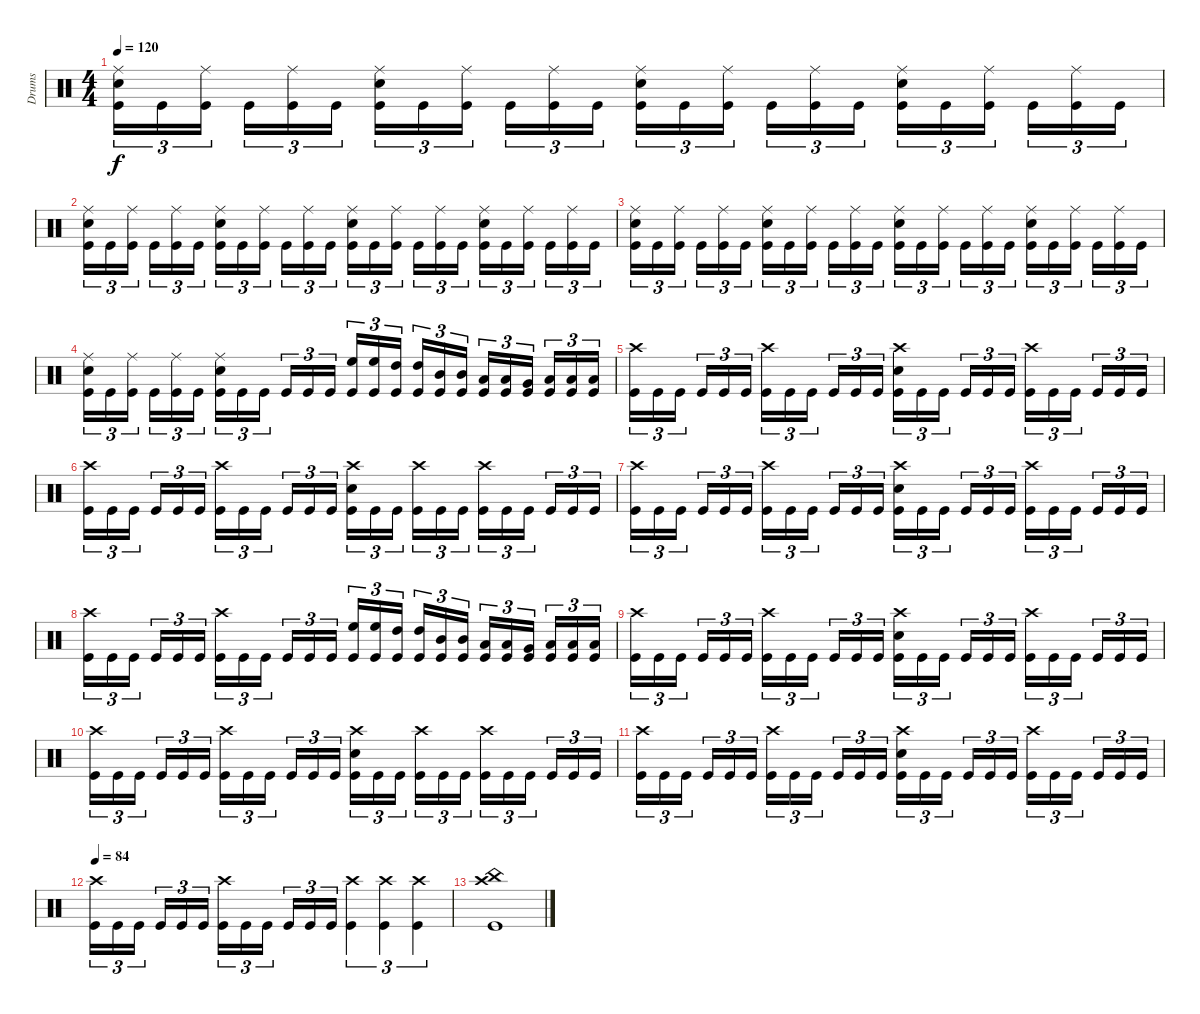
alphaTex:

\track ("Drums" "Drums") {instrument percussion}
\staff {score}
\articulation defaults
\ts (4 4)
\tempo 120
\clef neutral
\ks c
("Ride (middle)" "Snare (hit) 2" "Kick (hit)").16{tu (3 2) dy f} "Kick (hit)".16{tu (3 2)} ("Ride (middle)" "Kick (hit)").16{tu (3 2) beam splitsecondary} "Kick (hit)".16{tu (3 2)} ("Ride (middle)" "Kick (hit)").16{tu (3 2)} "Kick (hit)".16{tu (3 2)} ("Ride (middle)" "Snare (hit) 2" "Kick (hit)").16{tu (3 2)} "Kick (hit)".16{tu (3 2)} ("Ride (middle)" "Kick (hit)").16{tu (3 2) beam splitsecondary} "Kick (hit)".16{tu (3 2)} ("Ride (middle)" "Kick (hit)").16{tu (3 2)} "Kick (hit)".16{tu (3 2)} ("Ride (middle)" "Snare (hit) 2" "Kick (hit)").16{tu (3 2)} "Kick (hit)".16{tu (3 2)} ("Ride (middle)" "Kick (hit)").16{tu (3 2) beam splitsecondary} "Kick (hit)".16{tu (3 2)} ("Ride (middle)" "Kick (hit)").16{tu (3 2)} "Kick (hit)".16{tu (3 2)} ("Ride (middle)" "Snare (hit) 2" "Kick (hit)").16{tu (3 2)} "Kick (hit)".16{tu (3 2)} ("Ride (middle)" "Kick (hit)").16{tu (3 2) beam splitsecondary} "Kick (hit)".16{tu (3 2)} ("Ride (middle)" "Kick (hit)").16{tu (3 2)} "Kick (hit)".16{tu (3 2)} |
("Ride (middle)" "Snare (hit) 2" "Kick (hit)").16{tu (3 2)} "Kick (hit)".16{tu (3 2)} ("Ride (middle)" "Kick (hit)").16{tu (3 2) beam splitsecondary} "Kick (hit)".16{tu (3 2)} ("Ride (middle)" "Kick (hit)").16{tu (3 2)} "Kick (hit)".16{tu (3 2)} ("Ride (middle)" "Snare (hit) 2" "Kick (hit)").16{tu (3 2)} "Kick (hit)".16{tu (3 2)} ("Ride (middle)" "Kick (hit)").16{tu (3 2) beam splitsecondary} "Kick (hit)".16{tu (3 2)} ("Ride (middle)" "Kick (hit)").16{tu (3 2)} "Kick (hit)".16{tu (3 2)} ("Ride (middle)" "Snare (hit) 2" "Kick (hit)").16{tu (3 2)} "Kick (hit)".16{tu (3 2)} ("Ride (middle)" "Kick (hit)").16{tu (3 2) beam splitsecondary} "Kick (hit)".16{tu (3 2)} ("Ride (middle)" "Kick (hit)").16{tu (3 2)} "Kick (hit)".16{tu (3 2)} ("Ride (middle)" "Snare (hit) 2" "Kick (hit)").16{tu (3 2)} "Kick (hit)".16{tu (3 2)} ("Ride (middle)" "Kick (hit)").16{tu (3 2) beam splitsecondary} "Kick (hit)".16{tu (3 2)} ("Ride (middle)" "Kick (hit)").16{tu (3 2)} "Kick (hit)".16{tu (3 2)} |
("Ride (middle)" "Snare (hit) 2" "Kick (hit)").16{tu (3 2)} "Kick (hit)".16{tu (3 2)} ("Ride (middle)" "Kick (hit)").16{tu (3 2) beam splitsecondary} "Kick (hit)".16{tu (3 2)} ("Ride (middle)" "Kick (hit)").16{tu (3 2)} "Kick (hit)".16{tu (3 2)} ("Ride (middle)" "Snare (hit) 2" "Kick (hit)").16{tu (3 2)} "Kick (hit)".16{tu (3 2)} ("Ride (middle)" "Kick (hit)").16{tu (3 2) beam splitsecondary} "Kick (hit)".16{tu (3 2)} ("Ride (middle)" "Kick (hit)").16{tu (3 2)} "Kick (hit)".16{tu (3 2)} ("Ride (middle)" "Snare (hit) 2" "Kick (hit)").16{tu (3 2)} "Kick (hit)".16{tu (3 2)} ("Ride (middle)" "Kick (hit)").16{tu (3 2) beam splitsecondary} "Kick (hit)".16{tu (3 2)} ("Ride (middle)" "Kick (hit)").16{tu (3 2)} "Kick (hit)".16{tu (3 2)} ("Ride (middle)" "Snare (hit) 2" "Kick (hit)").16{tu (3 2)} "Kick (hit)".16{tu (3 2)} ("Ride (middle)" "Kick (hit)").16{tu (3 2) beam splitsecondary} "Kick (hit)".16{tu (3 2)} ("Ride (middle)" "Kick (hit)").16{tu (3 2)} "Kick (hit)".16{tu (3 2)} |
("Ride (middle)" "Snare (hit) 2" "Kick (hit)").16{tu (3 2)} "Kick (hit)".16{tu (3 2)} ("Ride (middle)" "Kick (hit)").16{tu (3 2) beam splitsecondary} "Kick (hit)".16{tu (3 2)} ("Ride (middle)" "Kick (hit)").16{tu (3 2)} "Kick (hit)".16{tu (3 2)} ("Ride (middle)" "Snare (hit) 2" "Kick (hit)").16{tu (3 2)} "Kick (hit)".16{tu (3 2)} "Kick (hit)".16{tu (3 2) beam splitsecondary} "Kick (hit)".16{tu (3 2)} "Kick (hit)".16{tu (3 2)} "Kick (hit)".16{tu (3 2)} ("High Floor Tom (hit)" "Kick (hit)").16{tu (3 2)} ("High Floor Tom (hit)" "Kick (hit)").16{tu (3 2)} ("High Tom (hit)" "Kick (hit)").16{tu (3 2) beam splitsecondary} ("High Tom (hit)" "Kick (hit)").16{tu (3 2)} ("Mid Tom (hit)" "Kick (hit)").16{tu (3 2)} ("Mid Tom (hit)" "Kick (hit)").16{tu (3 2)} ("Low Tom (hit)" "Kick (hit)").16{tu (3 2)} ("Low Tom (hit)" "Kick (hit)").16{tu (3 2)} ("Very Low Tom (hit)" "Kick (hit)").16{tu (3 2) beam splitsecondary} ("Low Floor Tom (hit)" "Kick (hit)").16{tu (3 2)} ("Low Floor Tom (hit)" "Kick (hit)").16{tu (3 2)} ("Low Floor Tom (hit)" "Kick (hit)").16{tu (3 2)} |
("Crash high (hit)" "Kick (hit)").16{tu (3 2)} "Kick (hit)".16{tu (3 2)} "Kick (hit)".16{tu (3 2) beam splitsecondary} "Kick (hit)".16{tu (3 2)} "Kick (hit)".16{tu (3 2)} "Kick (hit)".16{tu (3 2)} ("Crash high (hit)" "Kick (hit)").16{tu (3 2)} "Kick (hit)".16{tu (3 2)} "Kick (hit)".16{tu (3 2) beam splitsecondary} "Kick (hit)".16{tu (3 2)} "Kick (hit)".16{tu (3 2)} "Kick (hit)".16{tu (3 2)} ("Crash high (hit)" "Snare (hit) 2" "Kick (hit)").16{tu (3 2)} "Kick (hit)".16{tu (3 2)} "Kick (hit)".16{tu (3 2) beam splitsecondary} "Kick (hit)".16{tu (3 2)} "Kick (hit)".16{tu (3 2)} "Kick (hit)".16{tu (3 2)} ("Crash high (hit)" "Kick (hit)").16{tu (3 2)} "Kick (hit)".16{tu (3 2)} "Kick (hit)".16{tu (3 2) beam splitsecondary} "Kick (hit)".16{tu (3 2)} "Kick (hit)".16{tu (3 2)} "Kick (hit)".16{tu (3 2)} |
("Crash high (hit)" "Kick (hit)").16{tu (3 2)} "Kick (hit)".16{tu (3 2)} "Kick (hit)".16{tu (3 2) beam splitsecondary} "Kick (hit)".16{tu (3 2)} "Kick (hit)".16{tu (3 2)} "Kick (hit)".16{tu (3 2)} ("Crash high (hit)" "Kick (hit)").16{tu (3 2)} "Kick (hit)".16{tu (3 2)} "Kick (hit)".16{tu (3 2) beam splitsecondary} "Kick (hit)".16{tu (3 2)} "Kick (hit)".16{tu (3 2)} "Kick (hit)".16{tu (3 2)} ("Crash high (hit)" "Snare (hit) 2" "Kick (hit)").16{tu (3 2)} "Kick (hit)".16{tu (3 2)} "Kick (hit)".16{tu (3 2) beam splitsecondary} ("Crash high (hit)" "Kick (hit)").16{tu (3 2)} "Kick (hit)".16{tu (3 2)} "Kick (hit)".16{tu (3 2)} ("Crash high (hit)" "Kick (hit)").16{tu (3 2)} "Kick (hit)".16{tu (3 2)} "Kick (hit)".16{tu (3 2) beam splitsecondary} "Kick (hit)".16{tu (3 2)} "Kick (hit)".16{tu (3 2)} "Kick (hit)".16{tu (3 2)} |
("Crash high (hit)" "Kick (hit)").16{tu (3 2)} "Kick (hit)".16{tu (3 2)} "Kick (hit)".16{tu (3 2) beam splitsecondary} "Kick (hit)".16{tu (3 2)} "Kick (hit)".16{tu (3 2)} "Kick (hit)".16{tu (3 2)} ("Crash high (hit)" "Kick (hit)").16{tu (3 2)} "Kick (hit)".16{tu (3 2)} "Kick (hit)".16{tu (3 2) beam splitsecondary} "Kick (hit)".16{tu (3 2)} "Kick (hit)".16{tu (3 2)} "Kick (hit)".16{tu (3 2)} ("Crash high (hit)" "Snare (hit) 2" "Kick (hit)").16{tu (3 2)} "Kick (hit)".16{tu (3 2)} "Kick (hit)".16{tu (3 2) beam splitsecondary} "Kick (hit)".16{tu (3 2)} "Kick (hit)".16{tu (3 2)} "Kick (hit)".16{tu (3 2)} ("Crash high (hit)" "Kick (hit)").16{tu (3 2)} "Kick (hit)".16{tu (3 2)} "Kick (hit)".16{tu (3 2) beam splitsecondary} "Kick (hit)".16{tu (3 2)} "Kick (hit)".16{tu (3 2)} "Kick (hit)".16{tu (3 2)} |
("Crash high (hit)" "Kick (hit)").16{tu (3 2)} "Kick (hit)".16{tu (3 2)} "Kick (hit)".16{tu (3 2) beam splitsecondary} "Kick (hit)".16{tu (3 2)} "Kick (hit)".16{tu (3 2)} "Kick (hit)".16{tu (3 2)} ("Crash high (hit)" "Kick (hit)").16{tu (3 2)} "Kick (hit)".16{tu (3 2)} "Kick (hit)".16{tu (3 2) beam splitsecondary} "Kick (hit)".16{tu (3 2)} "Kick (hit)".16{tu (3 2)} "Kick (hit)".16{tu (3 2)} ("High Floor Tom (hit)" "Kick (hit)").16{tu (3 2)} ("High Floor Tom (hit)" "Kick (hit)").16{tu (3 2)} ("High Tom (hit)" "Kick (hit)").16{tu (3 2) beam splitsecondary} ("High Tom (hit)" "Kick (hit)").16{tu (3 2)} ("Mid Tom (hit)" "Kick (hit)").16{tu (3 2)} ("Mid Tom (hit)" "Kick (hit)").16{tu (3 2)} ("Low Tom (hit)" "Kick (hit)").16{tu (3 2)} ("Low Tom (hit)" "Kick (hit)").16{tu (3 2)} ("Very Low Tom (hit)" "Kick (hit)").16{tu (3 2) beam splitsecondary} ("Low Floor Tom (hit)" "Kick (hit)").16{tu (3 2)} ("Low Floor Tom (hit)" "Kick (hit)").16{tu (3 2)} ("Low Floor Tom (hit)" "Kick (hit)").16{tu (3 2)} |
("Crash high (hit)" "Kick (hit)").16{tu (3 2)} "Kick (hit)".16{tu (3 2)} "Kick (hit)".16{tu (3 2) beam splitsecondary} "Kick (hit)".16{tu (3 2)} "Kick (hit)".16{tu (3 2)} "Kick (hit)".16{tu (3 2)} ("Crash high (hit)" "Kick (hit)").16{tu (3 2)} "Kick (hit)".16{tu (3 2)} "Kick (hit)".16{tu (3 2) beam splitsecondary} "Kick (hit)".16{tu (3 2)} "Kick (hit)".16{tu (3 2)} "Kick (hit)".16{tu (3 2)} ("Crash high (hit)" "Snare (hit) 2" "Kick (hit)").16{tu (3 2)} "Kick (hit)".16{tu (3 2)} "Kick (hit)".16{tu (3 2) beam splitsecondary} "Kick (hit)".16{tu (3 2)} "Kick (hit)".16{tu (3 2)} "Kick (hit)".16{tu (3 2)} ("Crash high (hit)" "Kick (hit)").16{tu (3 2)} "Kick (hit)".16{tu (3 2)} "Kick (hit)".16{tu (3 2) beam splitsecondary} "Kick (hit)".16{tu (3 2)} "Kick (hit)".16{tu (3 2)} "Kick (hit)".16{tu (3 2)} |
("Crash high (hit)" "Kick (hit)").16{tu (3 2)} "Kick (hit)".16{tu (3 2)} "Kick (hit)".16{tu (3 2) beam splitsecondary} "Kick (hit)".16{tu (3 2)} "Kick (hit)".16{tu (3 2)} "Kick (hit)".16{tu (3 2)} ("Crash high (hit)" "Kick (hit)").16{tu (3 2)} "Kick (hit)".16{tu (3 2)} "Kick (hit)".16{tu (3 2) beam splitsecondary} "Kick (hit)".16{tu (3 2)} "Kick (hit)".16{tu (3 2)} "Kick (hit)".16{tu (3 2)} ("Crash high (hit)" "Snare (hit) 2" "Kick (hit)").16{tu (3 2)} "Kick (hit)".16{tu (3 2)} "Kick (hit)".16{tu (3 2) beam splitsecondary} ("Crash high (hit)" "Kick (hit)").16{tu (3 2)} "Kick (hit)".16{tu (3 2)} "Kick (hit)".16{tu (3 2)} ("Crash high (hit)" "Kick (hit)").16{tu (3 2)} "Kick (hit)".16{tu (3 2)} "Kick (hit)".16{tu (3 2) beam splitsecondary} "Kick (hit)".16{tu (3 2)} "Kick (hit)".16{tu (3 2)} "Kick (hit)".16{tu (3 2)} |
("Crash high (hit)" "Kick (hit)").16{tu (3 2)} "Kick (hit)".16{tu (3 2)} "Kick (hit)".16{tu (3 2) beam splitsecondary} "Kick (hit)".16{tu (3 2)} "Kick (hit)".16{tu (3 2)} "Kick (hit)".16{tu (3 2)} ("Crash high (hit)" "Kick (hit)").16{tu (3 2)} "Kick (hit)".16{tu (3 2)} "Kick (hit)".16{tu (3 2) beam splitsecondary} "Kick (hit)".16{tu (3 2)} "Kick (hit)".16{tu (3 2)} "Kick (hit)".16{tu (3 2)} ("Crash high (hit)" "Snare (hit) 2" "Kick (hit)").16{tu (3 2)} "Kick (hit)".16{tu (3 2)} "Kick (hit)".16{tu (3 2) beam splitsecondary} "Kick (hit)".16{tu (3 2)} "Kick (hit)".16{tu (3 2)} "Kick (hit)".16{tu (3 2)} ("Crash high (hit)" "Kick (hit)").16{tu (3 2)} "Kick (hit)".16{tu (3 2)} "Kick (hit)".16{tu (3 2) beam splitsecondary} "Kick (hit)".16{tu (3 2)} "Kick (hit)".16{tu (3 2)} "Kick (hit)".16{tu (3 2)} |
\tempo 84
("Crash high (hit)" "Kick (hit)").16{tu (3 2)} "Kick (hit)".16{tu (3 2)} "Kick (hit)".16{tu (3 2) beam splitsecondary} "Kick (hit)".16{tu (3 2)} "Kick (hit)".16{tu (3 2)} "Kick (hit)".16{tu (3 2)} ("Crash high (hit)" "Kick (hit)").16{tu (3 2)} "Kick (hit)".16{tu (3 2)} "Kick (hit)".16{tu (3 2) beam splitsecondary} "Kick (hit)".16{tu (3 2)} "Kick (hit)".16{tu (3 2)} "Kick (hit)".16{tu (3 2)} ("Crash high (hit)" "Kick (hit)").4{tu (3 2)} ("Crash high (hit)" "Kick (hit)").4{tu (3 2)} ("Crash high (hit)" "Kick (hit)").4{tu (3 2)} |
("China (hit)" "Crash high (hit)" "Kick (hit)").1
